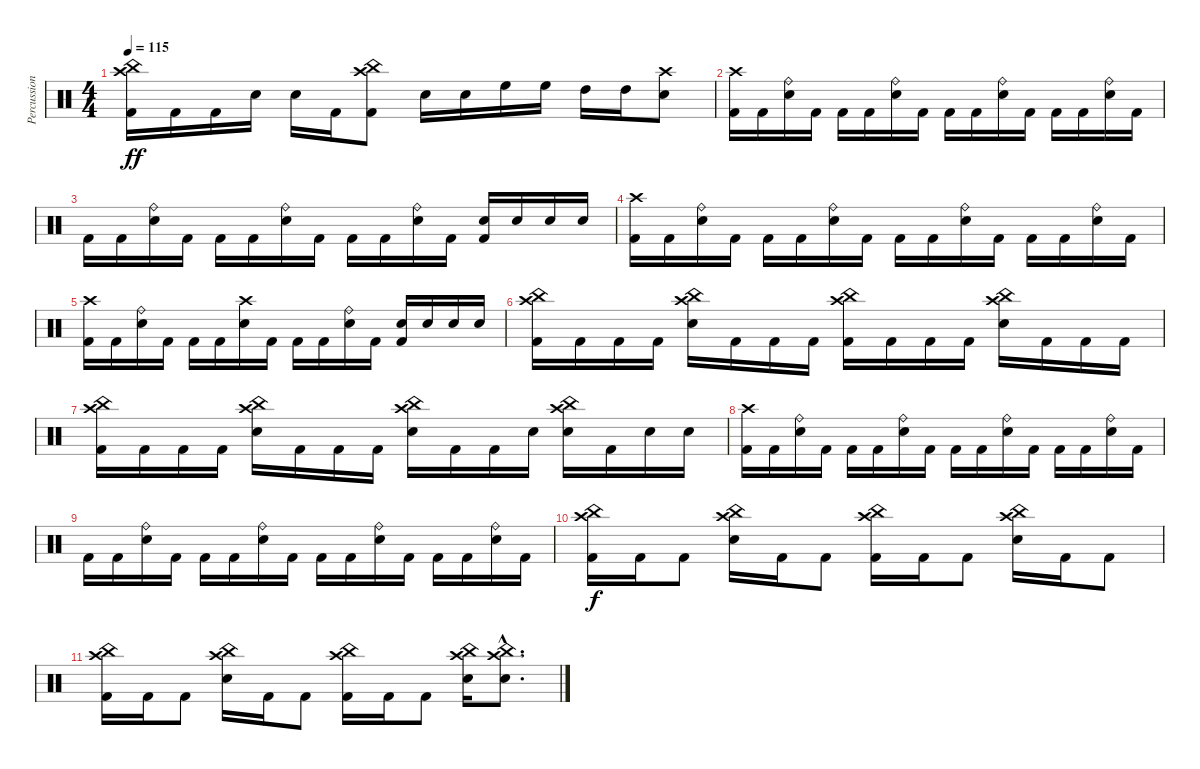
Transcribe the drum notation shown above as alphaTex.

\track ("Percussion" "Percussion") {instrument percussion}
\staff {score}
\articulation defaults
\ts (4 4)
\tempo 115
\clef neutral
\ks c
("Kick (hit) 2" "Crash high (hit)" "China (hit)").16{dy ff} "Kick (hit) 2".16 "Kick (hit) 2".16 "Electric Snare (hit)".16 "Electric Snare (hit)".16 "Kick (hit) 2".16 ("Kick (hit) 2" "Crash high (hit)" "China (hit)").8 "Electric Snare (hit)".16 "Electric Snare (hit)".16 "High Floor Tom (hit)".16 "High Floor Tom (hit)".16 "High Tom (hit)".16 "High Tom (hit)".16 ("Electric Snare (hit)" "Crash high (hit)").8 |
("Kick (hit) 2" "Crash high (hit)").16 "Kick (hit) 2".16 ("Electric Snare (hit)" "Ride (bell)").16 "Kick (hit) 2".16 "Kick (hit) 2".16 "Kick (hit) 2".16 ("Electric Snare (hit)" "Ride (bell)").16 "Kick (hit) 2".16 "Kick (hit) 2".16 "Kick (hit) 2".16 ("Electric Snare (hit)" "Ride (bell)").16 "Kick (hit) 2".16 "Kick (hit) 2".16 "Kick (hit) 2".16 ("Electric Snare (hit)" "Ride (bell)").16 "Kick (hit) 2".16 |
"Kick (hit) 2".16 "Kick (hit) 2".16 ("Electric Snare (hit)" "Ride (bell)").16 "Kick (hit) 2".16 "Kick (hit) 2".16 "Kick (hit) 2".16 ("Electric Snare (hit)" "Ride (bell)").16 "Kick (hit) 2".16 "Kick (hit) 2".16 "Kick (hit) 2".16 ("Electric Snare (hit)" "Ride (bell)").16 "Kick (hit) 2".16 ("Electric Snare (hit)" "Kick (hit) 2").16 "Electric Snare (hit)".16 "Electric Snare (hit)".16 "Electric Snare (hit)".16 |
("Kick (hit) 2" "Crash high (hit)").16 "Kick (hit) 2".16 ("Electric Snare (hit)" "Ride (bell)").16 "Kick (hit) 2".16 "Kick (hit) 2".16 "Kick (hit) 2".16 ("Electric Snare (hit)" "Ride (bell)").16 "Kick (hit) 2".16 "Kick (hit) 2".16 "Kick (hit) 2".16 ("Electric Snare (hit)" "Ride (bell)").16 "Kick (hit) 2".16 "Kick (hit) 2".16 "Kick (hit) 2".16 ("Electric Snare (hit)" "Ride (bell)").16 "Kick (hit) 2".16 |
("Kick (hit) 2" "Crash high (hit)").16 "Kick (hit) 2".16 ("Electric Snare (hit)" "Ride (bell)").16 "Kick (hit) 2".16 "Kick (hit) 2".16 "Kick (hit) 2".16 ("Electric Snare (hit)" "Crash high (hit)").16 "Kick (hit) 2".16 "Kick (hit) 2".16 "Kick (hit) 2".16 ("Electric Snare (hit)" "Ride (bell)").16 "Kick (hit) 2".16 ("Electric Snare (hit)" "Kick (hit) 2").16 "Electric Snare (hit)".16 "Electric Snare (hit)".16 "Electric Snare (hit)".16 |
("Kick (hit) 2" "Crash high (hit)" "China (hit)").16 "Kick (hit) 2".16 "Kick (hit) 2".16 "Kick (hit) 2".16 ("Electric Snare (hit)" "Crash high (hit)" "China (hit)").16 "Kick (hit) 2".16 "Kick (hit) 2".16 "Kick (hit) 2".16 ("Kick (hit) 2" "Crash high (hit)" "China (hit)").16 "Kick (hit) 2".16 "Kick (hit) 2".16 "Kick (hit) 2".16 ("Electric Snare (hit)" "Crash high (hit)" "China (hit)").16 "Kick (hit) 2".16 "Kick (hit) 2".16 "Kick (hit) 2".16 |
("Kick (hit) 2" "Crash high (hit)" "China (hit)").16 "Kick (hit) 2".16 "Kick (hit) 2".16 "Kick (hit) 2".16 ("Electric Snare (hit)" "Crash high (hit)" "China (hit)").16 "Kick (hit) 2".16 "Kick (hit) 2".16 "Kick (hit) 2".16 ("Electric Snare (hit)" "Crash high (hit)" "China (hit)").16 "Kick (hit) 2".16 "Kick (hit) 2".16 "Electric Snare (hit)".16 ("Electric Snare (hit)" "Crash high (hit)" "China (hit)").16 "Kick (hit) 2".16 "Electric Snare (hit)".16 "Electric Snare (hit)".16 |
("Kick (hit) 2" "Crash high (hit)").16 "Kick (hit) 2".16 ("Electric Snare (hit)" "Ride (bell)").16 "Kick (hit) 2".16 "Kick (hit) 2".16 "Kick (hit) 2".16 ("Electric Snare (hit)" "Ride (bell)").16 "Kick (hit) 2".16 "Kick (hit) 2".16 "Kick (hit) 2".16 ("Electric Snare (hit)" "Ride (bell)").16 "Kick (hit) 2".16 "Kick (hit) 2".16 "Kick (hit) 2".16 ("Electric Snare (hit)" "Ride (bell)").16 "Kick (hit) 2".16 |
"Kick (hit) 2".16 "Kick (hit) 2".16 ("Electric Snare (hit)" "Ride (bell)").16 "Kick (hit) 2".16 "Kick (hit) 2".16 "Kick (hit) 2".16 ("Electric Snare (hit)" "Ride (bell)").16 "Kick (hit) 2".16 "Kick (hit) 2".16 "Kick (hit) 2".16 ("Electric Snare (hit)" "Ride (bell)").16 "Kick (hit) 2".16 "Kick (hit) 2".16 "Kick (hit) 2".16 ("Electric Snare (hit)" "Ride (bell)").16 "Kick (hit) 2".16 |
("Kick (hit) 2" "Crash high (hit)" "China (hit)").16{dy f} "Kick (hit) 2".16 "Kick (hit) 2".8 ("Electric Snare (hit)" "Crash high (hit)" "China (hit)").16 "Kick (hit) 2".16 "Kick (hit) 2".8 ("Kick (hit) 2" "Crash high (hit)" "China (hit)").16 "Kick (hit) 2".16 "Kick (hit) 2".8 ("Electric Snare (hit)" "Crash high (hit)" "China (hit)").16 "Kick (hit) 2".16 "Kick (hit) 2".8 |
("Kick (hit) 2" "Crash high (hit)" "China (hit)").16 "Kick (hit) 2".16 "Kick (hit) 2".8 ("Electric Snare (hit)" "Crash high (hit)" "China (hit)").16 "Kick (hit) 2".16 "Kick (hit) 2".8 ("Kick (hit) 2" "Crash high (hit)" "China (hit)").16 "Kick (hit) 2".16 "Kick (hit) 2".8 ("Electric Snare (hit)" "Crash high (hit)" "China (hit)").16 ("Electric Snare (hit)"{hac} "Crash high (hit)"{hac} "China (hit)"{hac}).8{d}
